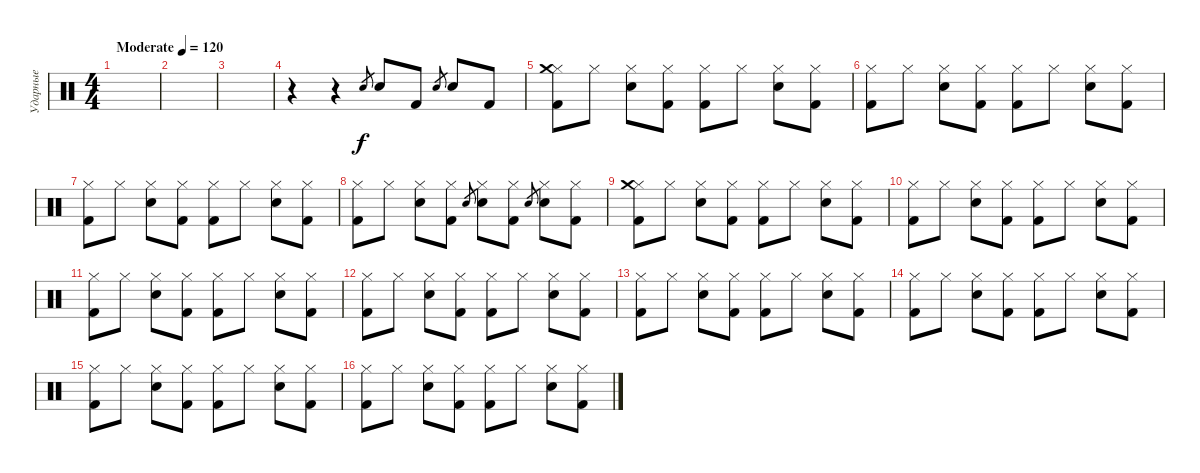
\track ("Ударные" "Ударные") {instrument percussion}
\staff {score}
\articulation defaults
\ts (4 4)
\tempo (120 "Moderate")
\clef neutral
\ks c
|
|
|
r.4 r.4 "Electric Snare (hit)".8{gr} "Electric Snare (hit)".8 "Kick (hit) 2".8 "Electric Snare (hit)".8{gr} "Electric Snare (hit)".8 "Kick (hit) 2".8 |
("Kick (hit) 2" "Hi-Hat (closed)" "Crash medium (hit)").8 "Hi-Hat (closed)".8 ("Electric Snare (hit)" "Hi-Hat (closed)").8 ("Kick (hit) 2" "Hi-Hat (closed)").8 ("Kick (hit) 2" "Hi-Hat (closed)").8 "Hi-Hat (closed)".8 ("Electric Snare (hit)" "Hi-Hat (closed)").8 ("Kick (hit) 2" "Hi-Hat (closed)").8 |
("Kick (hit) 2" "Hi-Hat (closed)").8 "Hi-Hat (closed)".8 ("Electric Snare (hit)" "Hi-Hat (closed)").8 ("Kick (hit) 2" "Hi-Hat (closed)").8 ("Kick (hit) 2" "Hi-Hat (closed)").8 "Hi-Hat (closed)".8 ("Electric Snare (hit)" "Hi-Hat (closed)").8 ("Kick (hit) 2" "Hi-Hat (closed)").8 |
("Kick (hit) 2" "Hi-Hat (closed)").8 "Hi-Hat (closed)".8 ("Electric Snare (hit)" "Hi-Hat (closed)").8 ("Kick (hit) 2" "Hi-Hat (closed)").8 ("Kick (hit) 2" "Hi-Hat (closed)").8 "Hi-Hat (closed)".8 ("Electric Snare (hit)" "Hi-Hat (closed)").8 ("Kick (hit) 2" "Hi-Hat (closed)").8 |
("Kick (hit) 2" "Hi-Hat (closed)").8 "Hi-Hat (closed)".8 ("Electric Snare (hit)" "Hi-Hat (closed)").8 ("Kick (hit) 2" "Hi-Hat (closed)").8 "Electric Snare (hit)".8{gr} ("Electric Snare (hit)" "Hi-Hat (closed)").8 ("Kick (hit) 2" "Hi-Hat (closed)").8 "Electric Snare (hit)".8{gr} ("Electric Snare (hit)" "Hi-Hat (closed)").8 ("Kick (hit) 2" "Hi-Hat (closed)").8 |
("Kick (hit) 2" "Hi-Hat (closed)" "Crash medium (hit)").8 "Hi-Hat (closed)".8 ("Electric Snare (hit)" "Hi-Hat (closed)").8 ("Kick (hit) 2" "Hi-Hat (closed)").8 ("Kick (hit) 2" "Hi-Hat (closed)").8 "Hi-Hat (closed)".8 ("Electric Snare (hit)" "Hi-Hat (closed)").8 ("Kick (hit) 2" "Hi-Hat (closed)").8 |
("Kick (hit) 2" "Hi-Hat (closed)").8 "Hi-Hat (closed)".8 ("Electric Snare (hit)" "Hi-Hat (closed)").8 ("Kick (hit) 2" "Hi-Hat (closed)").8 ("Kick (hit) 2" "Hi-Hat (closed)").8 "Hi-Hat (closed)".8 ("Electric Snare (hit)" "Hi-Hat (closed)").8 ("Kick (hit) 2" "Hi-Hat (closed)").8 |
("Kick (hit) 2" "Hi-Hat (closed)").8 "Hi-Hat (closed)".8 ("Electric Snare (hit)" "Hi-Hat (closed)").8 ("Kick (hit) 2" "Hi-Hat (closed)").8 ("Kick (hit) 2" "Hi-Hat (closed)").8 "Hi-Hat (closed)".8 ("Electric Snare (hit)" "Hi-Hat (closed)").8 ("Kick (hit) 2" "Hi-Hat (closed)").8 |
("Kick (hit) 2" "Hi-Hat (closed)").8 "Hi-Hat (closed)".8 ("Electric Snare (hit)" "Hi-Hat (closed)").8 ("Kick (hit) 2" "Hi-Hat (closed)").8 ("Kick (hit) 2" "Hi-Hat (closed)").8 "Hi-Hat (closed)".8 ("Electric Snare (hit)" "Hi-Hat (closed)").8 ("Kick (hit) 2" "Hi-Hat (closed)").8 |
("Kick (hit) 2" "Hi-Hat (closed)").8 "Hi-Hat (closed)".8 ("Electric Snare (hit)" "Hi-Hat (closed)").8 ("Kick (hit) 2" "Hi-Hat (closed)").8 ("Kick (hit) 2" "Hi-Hat (closed)").8 "Hi-Hat (closed)".8 ("Electric Snare (hit)" "Hi-Hat (closed)").8 ("Kick (hit) 2" "Hi-Hat (closed)").8 |
("Kick (hit) 2" "Hi-Hat (closed)").8 "Hi-Hat (closed)".8 ("Electric Snare (hit)" "Hi-Hat (closed)").8 ("Kick (hit) 2" "Hi-Hat (closed)").8 ("Kick (hit) 2" "Hi-Hat (closed)").8 "Hi-Hat (closed)".8 ("Electric Snare (hit)" "Hi-Hat (closed)").8 ("Kick (hit) 2" "Hi-Hat (closed)").8 |
("Kick (hit) 2" "Hi-Hat (closed)").8 "Hi-Hat (closed)".8 ("Electric Snare (hit)" "Hi-Hat (closed)").8 ("Kick (hit) 2" "Hi-Hat (closed)").8 ("Kick (hit) 2" "Hi-Hat (closed)").8 "Hi-Hat (closed)".8 ("Electric Snare (hit)" "Hi-Hat (closed)").8 ("Kick (hit) 2" "Hi-Hat (closed)").8 |
("Kick (hit) 2" "Hi-Hat (closed)").8 "Hi-Hat (closed)".8 ("Electric Snare (hit)" "Hi-Hat (closed)").8 ("Kick (hit) 2" "Hi-Hat (closed)").8 ("Kick (hit) 2" "Hi-Hat (closed)").8 "Hi-Hat (closed)".8 ("Electric Snare (hit)" "Hi-Hat (closed)").8 ("Kick (hit) 2" "Hi-Hat (closed)").8
